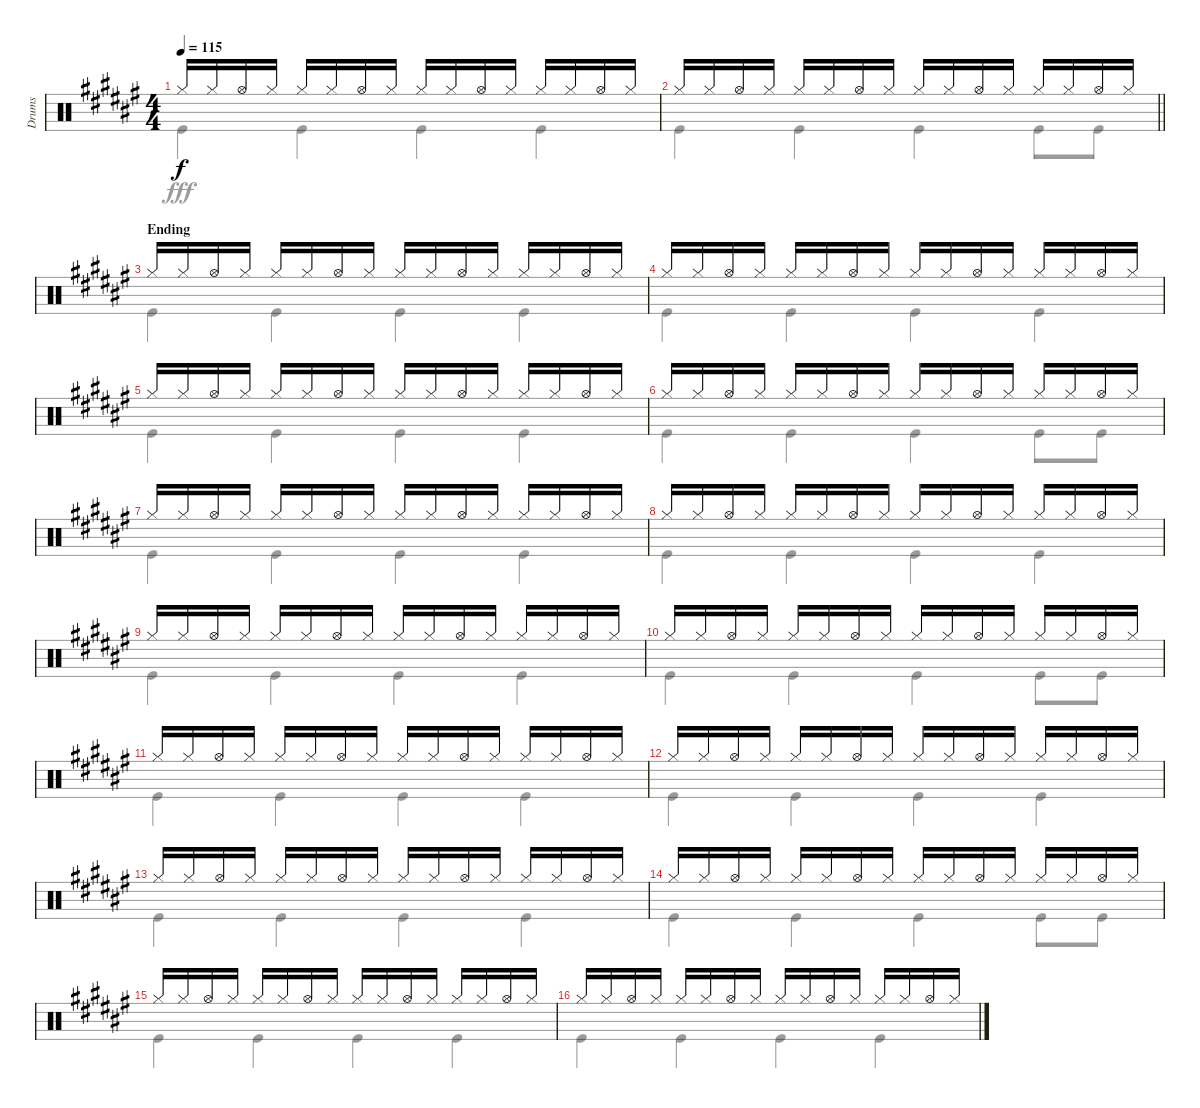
\track ("Drums" "Drums") {instrument percussion}
\staff {score}
\articulation defaults
\voice
\ts (4 4)
\tempo 115
\clef neutral
\ks f# "Hi-Hat (closed)".16{dy f} "Hi-Hat (closed)".16 "Hi-Hat (open)".16 "Hi-Hat (closed)".16 "Hi-Hat (closed)".16 "Hi-Hat (closed)".16 "Hi-Hat (open)".16 "Hi-Hat (closed)".16 "Hi-Hat (closed)".16 "Hi-Hat (closed)".16 "Hi-Hat (open)".16 "Hi-Hat (closed)".16 "Hi-Hat (closed)".16 "Hi-Hat (closed)".16 "Hi-Hat (open)".16 "Hi-Hat (closed)".16
|
\barLineRight lightlight "Hi-Hat (closed)".16 "Hi-Hat (closed)".16 "Hi-Hat (open)".16 "Hi-Hat (closed)".16 "Hi-Hat (closed)".16 "Hi-Hat (closed)".16 "Hi-Hat (open)".16 "Hi-Hat (closed)".16 "Hi-Hat (closed)".16 "Hi-Hat (closed)".16 "Hi-Hat (open)".16 "Hi-Hat (closed)".16 "Hi-Hat (closed)".16 "Hi-Hat (closed)".16 "Hi-Hat (open)".16 "Hi-Hat (closed)".16
|
\section ("" "Ending")
"Hi-Hat (closed)".16 "Hi-Hat (closed)".16 "Hi-Hat (open)".16 "Hi-Hat (closed)".16 "Hi-Hat (closed)".16 "Hi-Hat (closed)".16 "Hi-Hat (open)".16 "Hi-Hat (closed)".16 "Hi-Hat (closed)".16 "Hi-Hat (closed)".16 "Hi-Hat (open)".16 "Hi-Hat (closed)".16 "Hi-Hat (closed)".16 "Hi-Hat (closed)".16 "Hi-Hat (open)".16 "Hi-Hat (closed)".16 |
"Hi-Hat (closed)".16 "Hi-Hat (closed)".16 "Hi-Hat (open)".16 "Hi-Hat (closed)".16 "Hi-Hat (closed)".16 "Hi-Hat (closed)".16 "Hi-Hat (open)".16 "Hi-Hat (closed)".16 "Hi-Hat (closed)".16 "Hi-Hat (closed)".16 "Hi-Hat (open)".16 "Hi-Hat (closed)".16 "Hi-Hat (closed)".16 "Hi-Hat (closed)".16 "Hi-Hat (open)".16 "Hi-Hat (closed)".16 |
"Hi-Hat (closed)".16 "Hi-Hat (closed)".16 "Hi-Hat (open)".16 "Hi-Hat (closed)".16 "Hi-Hat (closed)".16 "Hi-Hat (closed)".16 "Hi-Hat (open)".16 "Hi-Hat (closed)".16 "Hi-Hat (closed)".16 "Hi-Hat (closed)".16 "Hi-Hat (open)".16 "Hi-Hat (closed)".16 "Hi-Hat (closed)".16 "Hi-Hat (closed)".16 "Hi-Hat (open)".16 "Hi-Hat (closed)".16 |
"Hi-Hat (closed)".16 "Hi-Hat (closed)".16 "Hi-Hat (open)".16 "Hi-Hat (closed)".16 "Hi-Hat (closed)".16 "Hi-Hat (closed)".16 "Hi-Hat (open)".16 "Hi-Hat (closed)".16 "Hi-Hat (closed)".16 "Hi-Hat (closed)".16 "Hi-Hat (open)".16 "Hi-Hat (closed)".16 "Hi-Hat (closed)".16 "Hi-Hat (closed)".16 "Hi-Hat (open)".16 "Hi-Hat (closed)".16 |
"Hi-Hat (closed)".16 "Hi-Hat (closed)".16 "Hi-Hat (open)".16 "Hi-Hat (closed)".16 "Hi-Hat (closed)".16 "Hi-Hat (closed)".16 "Hi-Hat (open)".16 "Hi-Hat (closed)".16 "Hi-Hat (closed)".16 "Hi-Hat (closed)".16 "Hi-Hat (open)".16 "Hi-Hat (closed)".16 "Hi-Hat (closed)".16 "Hi-Hat (closed)".16 "Hi-Hat (open)".16 "Hi-Hat (closed)".16 |
"Hi-Hat (closed)".16 "Hi-Hat (closed)".16 "Hi-Hat (open)".16 "Hi-Hat (closed)".16 "Hi-Hat (closed)".16 "Hi-Hat (closed)".16 "Hi-Hat (open)".16 "Hi-Hat (closed)".16 "Hi-Hat (closed)".16 "Hi-Hat (closed)".16 "Hi-Hat (open)".16 "Hi-Hat (closed)".16 "Hi-Hat (closed)".16 "Hi-Hat (closed)".16 "Hi-Hat (open)".16 "Hi-Hat (closed)".16 |
"Hi-Hat (closed)".16 "Hi-Hat (closed)".16 "Hi-Hat (open)".16 "Hi-Hat (closed)".16 "Hi-Hat (closed)".16 "Hi-Hat (closed)".16 "Hi-Hat (open)".16 "Hi-Hat (closed)".16 "Hi-Hat (closed)".16 "Hi-Hat (closed)".16 "Hi-Hat (open)".16 "Hi-Hat (closed)".16 "Hi-Hat (closed)".16 "Hi-Hat (closed)".16 "Hi-Hat (open)".16 "Hi-Hat (closed)".16 |
"Hi-Hat (closed)".16 "Hi-Hat (closed)".16 "Hi-Hat (open)".16 "Hi-Hat (closed)".16 "Hi-Hat (closed)".16 "Hi-Hat (closed)".16 "Hi-Hat (open)".16 "Hi-Hat (closed)".16 "Hi-Hat (closed)".16 "Hi-Hat (closed)".16 "Hi-Hat (open)".16 "Hi-Hat (closed)".16 "Hi-Hat (closed)".16 "Hi-Hat (closed)".16 "Hi-Hat (open)".16 "Hi-Hat (closed)".16 |
"Hi-Hat (closed)".16 "Hi-Hat (closed)".16 "Hi-Hat (open)".16 "Hi-Hat (closed)".16 "Hi-Hat (closed)".16 "Hi-Hat (closed)".16 "Hi-Hat (open)".16 "Hi-Hat (closed)".16 "Hi-Hat (closed)".16 "Hi-Hat (closed)".16 "Hi-Hat (open)".16 "Hi-Hat (closed)".16 "Hi-Hat (closed)".16 "Hi-Hat (closed)".16 "Hi-Hat (open)".16 "Hi-Hat (closed)".16 |
"Hi-Hat (closed)".16 "Hi-Hat (closed)".16 "Hi-Hat (open)".16 "Hi-Hat (closed)".16 "Hi-Hat (closed)".16 "Hi-Hat (closed)".16 "Hi-Hat (open)".16 "Hi-Hat (closed)".16 "Hi-Hat (closed)".16 "Hi-Hat (closed)".16 "Hi-Hat (open)".16 "Hi-Hat (closed)".16 "Hi-Hat (closed)".16 "Hi-Hat (closed)".16 "Hi-Hat (open)".16 "Hi-Hat (closed)".16 |
"Hi-Hat (closed)".16 "Hi-Hat (closed)".16 "Hi-Hat (open)".16 "Hi-Hat (closed)".16 "Hi-Hat (closed)".16 "Hi-Hat (closed)".16 "Hi-Hat (open)".16 "Hi-Hat (closed)".16 "Hi-Hat (closed)".16 "Hi-Hat (closed)".16 "Hi-Hat (open)".16 "Hi-Hat (closed)".16 "Hi-Hat (closed)".16 "Hi-Hat (closed)".16 "Hi-Hat (open)".16 "Hi-Hat (closed)".16 |
"Hi-Hat (closed)".16 "Hi-Hat (closed)".16 "Hi-Hat (open)".16 "Hi-Hat (closed)".16 "Hi-Hat (closed)".16 "Hi-Hat (closed)".16 "Hi-Hat (open)".16 "Hi-Hat (closed)".16 "Hi-Hat (closed)".16 "Hi-Hat (closed)".16 "Hi-Hat (open)".16 "Hi-Hat (closed)".16 "Hi-Hat (closed)".16 "Hi-Hat (closed)".16 "Hi-Hat (open)".16 "Hi-Hat (closed)".16 |
"Hi-Hat (closed)".16 "Hi-Hat (closed)".16 "Hi-Hat (open)".16 "Hi-Hat (closed)".16 "Hi-Hat (closed)".16 "Hi-Hat (closed)".16 "Hi-Hat (open)".16 "Hi-Hat (closed)".16 "Hi-Hat (closed)".16 "Hi-Hat (closed)".16 "Hi-Hat (open)".16 "Hi-Hat (closed)".16 "Hi-Hat (closed)".16 "Hi-Hat (closed)".16 "Hi-Hat (open)".16 "Hi-Hat (closed)".16 |
"Hi-Hat (closed)".16 "Hi-Hat (closed)".16 "Hi-Hat (open)".16 "Hi-Hat (closed)".16 "Hi-Hat (closed)".16 "Hi-Hat (closed)".16 "Hi-Hat (open)".16 "Hi-Hat (closed)".16 "Hi-Hat (closed)".16 "Hi-Hat (closed)".16 "Hi-Hat (open)".16 "Hi-Hat (closed)".16 "Hi-Hat (closed)".16 "Hi-Hat (closed)".16 "Hi-Hat (open)".16 "Hi-Hat (closed)".16
\voice
\clef neutral
\ottava regular
\simile none
\ks f# "Kick (hit)".4{dy fff} "Kick (hit)".4 "Kick (hit)".4 "Kick (hit)".4
|
\barLineRight lightlight "Kick (hit)".4 "Kick (hit)".4 "Kick (hit)".4 "Kick (hit)".8 "Kick (hit)".8
|
"Kick (hit)".4 "Kick (hit)".4 "Kick (hit)".4 "Kick (hit)".4 |
"Kick (hit)".4 "Kick (hit)".4 "Kick (hit)".4 "Kick (hit)".4 |
"Kick (hit)".4 "Kick (hit)".4 "Kick (hit)".4 "Kick (hit)".4 |
"Kick (hit)".4 "Kick (hit)".4 "Kick (hit)".4 "Kick (hit)".8 "Kick (hit)".8 |
"Kick (hit)".4 "Kick (hit)".4 "Kick (hit)".4 "Kick (hit)".4 |
"Kick (hit)".4 "Kick (hit)".4 "Kick (hit)".4 "Kick (hit)".4 |
"Kick (hit)".4 "Kick (hit)".4 "Kick (hit)".4 "Kick (hit)".4 |
"Kick (hit)".4 "Kick (hit)".4 "Kick (hit)".4 "Kick (hit)".8 "Kick (hit)".8 |
"Kick (hit)".4 "Kick (hit)".4 "Kick (hit)".4 "Kick (hit)".4 |
"Kick (hit)".4 "Kick (hit)".4 "Kick (hit)".4 "Kick (hit)".4 |
"Kick (hit)".4 "Kick (hit)".4 "Kick (hit)".4 "Kick (hit)".4 |
"Kick (hit)".4 "Kick (hit)".4 "Kick (hit)".4 "Kick (hit)".8 "Kick (hit)".8 |
"Kick (hit)".4 "Kick (hit)".4 "Kick (hit)".4 "Kick (hit)".4 |
"Kick (hit)".4 "Kick (hit)".4 "Kick (hit)".4 "Kick (hit)".4
